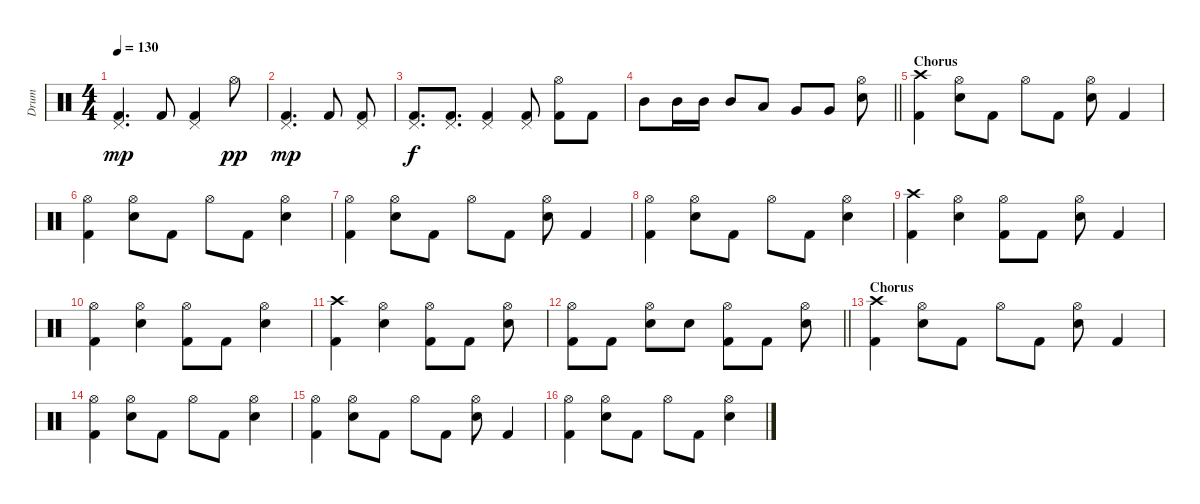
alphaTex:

\track ("Drum" "Drum") {instrument percussion}
\staff {score}
\articulation defaults
\ts (4 4)
\tempo 130
\clef neutral
\ks c
("Pedal Hi-Hat (hit)" "Kick (hit) 2").4{d dy mp} "Kick (hit) 2".8 ("Pedal Hi-Hat (hit)" "Kick (hit) 2").4 "Hi-Hat (open)".8{dy pp} |
("Pedal Hi-Hat (hit)" "Kick (hit) 2").4{d dy mp} "Kick (hit) 2".8 ("Pedal Hi-Hat (hit)" "Kick (hit) 2").8 |
("Pedal Hi-Hat (hit)" "Kick (hit) 2").8{d dy f} ("Pedal Hi-Hat (hit)" "Kick (hit) 2").8{d} ("Pedal Hi-Hat (hit)" "Kick (hit) 2").4 ("Pedal Hi-Hat (hit)" "Kick (hit) 2").8 ("Hi-Hat (open)" "Kick (hit) 2").8 "Kick (hit) 2".8 |
\barLineRight lightlight "Mid Tom (hit)".8 "Mid Tom (hit)".16 "Mid Tom (hit)".16 "Mid Tom (hit)".8 "Low Tom (hit)".8 "Very Low Tom (hit)".8 "Very Low Tom (hit)".8
("Hi-Hat (open)" "Electric Snare (hit)").8 |
\section ("" "Chorus")
("Crash high (hit)" "Kick (hit) 2").4 ("Hi-Hat (open)" "Electric Snare (hit)").8 "Kick (hit) 2".8 "Hi-Hat (open)".8 "Kick (hit) 2".8 ("Hi-Hat (open)" "Electric Snare (hit)").8 "Kick (hit) 2".4 |
("Hi-Hat (open)" "Kick (hit) 2").4 ("Hi-Hat (open)" "Electric Snare (hit)").8 "Kick (hit) 2".8 "Hi-Hat (open)".8 "Kick (hit) 2".8 ("Hi-Hat (open)" "Electric Snare (hit)").4 |
("Hi-Hat (open)" "Kick (hit) 2").4 ("Hi-Hat (open)" "Electric Snare (hit)").8 "Kick (hit) 2".8 "Hi-Hat (open)".8 "Kick (hit) 2".8 ("Hi-Hat (open)" "Electric Snare (hit)").8 "Kick (hit) 2".4 |
("Hi-Hat (open)" "Kick (hit) 2").4 ("Hi-Hat (open)" "Electric Snare (hit)").8 "Kick (hit) 2".8 "Hi-Hat (open)".8 "Kick (hit) 2".8 ("Hi-Hat (open)" "Electric Snare (hit)").4 |
("Crash high (hit)" "Kick (hit) 2").4 ("Hi-Hat (open)" "Electric Snare (hit)").4 ("Hi-Hat (open)" "Kick (hit) 2").8 "Kick (hit) 2".8 ("Hi-Hat (open)" "Electric Snare (hit)").8 "Kick (hit) 2".4 |
("Hi-Hat (open)" "Kick (hit) 2").4 ("Hi-Hat (open)" "Electric Snare (hit)").4 ("Hi-Hat (open)" "Kick (hit) 2").8 "Kick (hit) 2".8 ("Hi-Hat (open)" "Electric Snare (hit)").4 |
("Crash high (hit)" "Kick (hit) 2").4 ("Hi-Hat (open)" "Electric Snare (hit)").4 ("Hi-Hat (open)" "Kick (hit) 2").8 "Kick (hit) 2".8 ("Hi-Hat (open)" "Electric Snare (hit)").8 |
\barLineRight lightlight
("Hi-Hat (open)" "Kick (hit) 2").8 "Kick (hit) 2".8 ("Hi-Hat (open)" "Electric Snare (hit)").8 "Electric Snare (hit)".8 ("Hi-Hat (open)" "Kick (hit) 2").8 "Kick (hit) 2".8 ("Hi-Hat (open)" "Electric Snare (hit)").8 |
\section ("" "Chorus")
("Crash high (hit)" "Kick (hit) 2").4 ("Hi-Hat (open)" "Electric Snare (hit)").8 "Kick (hit) 2".8 "Hi-Hat (open)".8 "Kick (hit) 2".8 ("Hi-Hat (open)" "Electric Snare (hit)").8 "Kick (hit) 2".4 |
("Hi-Hat (open)" "Kick (hit) 2").4 ("Hi-Hat (open)" "Electric Snare (hit)").8 "Kick (hit) 2".8 "Hi-Hat (open)".8 "Kick (hit) 2".8 ("Hi-Hat (open)" "Electric Snare (hit)").4 |
("Hi-Hat (open)" "Kick (hit) 2").4 ("Hi-Hat (open)" "Electric Snare (hit)").8 "Kick (hit) 2".8 "Hi-Hat (open)".8 "Kick (hit) 2".8 ("Hi-Hat (open)" "Electric Snare (hit)").8 "Kick (hit) 2".4 |
("Hi-Hat (open)" "Kick (hit) 2").4 ("Hi-Hat (open)" "Electric Snare (hit)").8 "Kick (hit) 2".8 "Hi-Hat (open)".8 "Kick (hit) 2".8 ("Hi-Hat (open)" "Electric Snare (hit)").4
